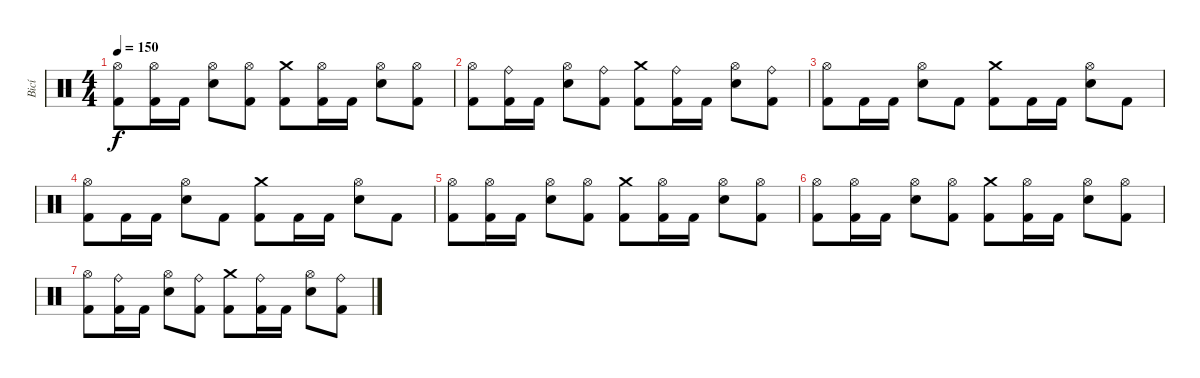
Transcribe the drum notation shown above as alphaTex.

\track ("Bicí" "Bicí") {instrument percussion}
\staff {score}
\articulation defaults
\ts (4 4)
\tempo 150
\clef neutral
\ks c
("Hi-Hat (open)" "Kick (hit) 2").8{dy f} ("Hi-Hat (open)" "Kick (hit) 2").16 "Kick (hit) 2".16 ("Hi-Hat (open)" "Snare (hit) 2").8 ("Hi-Hat (open)" "Kick (hit) 2").8 ("Crash medium (hit)" "Kick (hit) 2").8 ("Hi-Hat (open)" "Kick (hit) 2").16 "Kick (hit) 2".16 ("Hi-Hat (open)" "Snare (hit) 2").8 ("Hi-Hat (open)" "Kick (hit) 2").8 |
("Hi-Hat (open)" "Kick (hit) 2").8 ("Ride (bell)" "Kick (hit) 2").16 "Kick (hit) 2".16 ("Hi-Hat (open)" "Snare (hit) 2").8 ("Ride (bell)" "Kick (hit) 2").8 ("Crash medium (hit)" "Kick (hit) 2").8 ("Ride (bell)" "Kick (hit) 2").16 "Kick (hit) 2".16 ("Hi-Hat (open)" "Snare (hit) 2").8 ("Ride (bell)" "Kick (hit) 2").8 |
("Hi-Hat (open)" "Kick (hit) 2").8 "Kick (hit) 2".16 "Kick (hit) 2".16 ("Hi-Hat (open)" "Snare (hit) 2").8 "Kick (hit) 2".8 ("Crash medium (hit)" "Kick (hit) 2").8 "Kick (hit) 2".16 "Kick (hit) 2".16 ("Hi-Hat (open)" "Snare (hit) 2").8 "Kick (hit) 2".8 |
("Hi-Hat (open)" "Kick (hit) 2").8 "Kick (hit) 2".16 "Kick (hit) 2".16 ("Hi-Hat (open)" "Snare (hit) 2").8 "Kick (hit) 2".8 ("Crash medium (hit)" "Kick (hit) 2").8 "Kick (hit) 2".16 "Kick (hit) 2".16 ("Hi-Hat (open)" "Snare (hit) 2").8 "Kick (hit) 2".8 |
("Hi-Hat (open)" "Kick (hit) 2").8 ("Hi-Hat (open)" "Kick (hit) 2").16 "Kick (hit) 2".16 ("Hi-Hat (open)" "Snare (hit) 2").8 ("Hi-Hat (open)" "Kick (hit) 2").8 ("Crash medium (hit)" "Kick (hit) 2").8 ("Hi-Hat (open)" "Kick (hit) 2").16 "Kick (hit) 2".16 ("Hi-Hat (open)" "Snare (hit) 2").8 ("Hi-Hat (open)" "Kick (hit) 2").8 |
("Hi-Hat (open)" "Kick (hit) 2").8 ("Hi-Hat (open)" "Kick (hit) 2").16 "Kick (hit) 2".16 ("Hi-Hat (open)" "Snare (hit) 2").8 ("Hi-Hat (open)" "Kick (hit) 2").8 ("Crash medium (hit)" "Kick (hit) 2").8 ("Hi-Hat (open)" "Kick (hit) 2").16 "Kick (hit) 2".16 ("Hi-Hat (open)" "Snare (hit) 2").8 ("Hi-Hat (open)" "Kick (hit) 2").8 |
("Hi-Hat (open)" "Kick (hit) 2").8 ("Ride (bell)" "Kick (hit) 2").16 "Kick (hit) 2".16 ("Hi-Hat (open)" "Snare (hit) 2").8 ("Ride (bell)" "Kick (hit) 2").8 ("Crash medium (hit)" "Kick (hit) 2").8 ("Ride (bell)" "Kick (hit) 2").16 "Kick (hit) 2".16 ("Hi-Hat (open)" "Snare (hit) 2").8 ("Ride (bell)" "Kick (hit) 2").8
